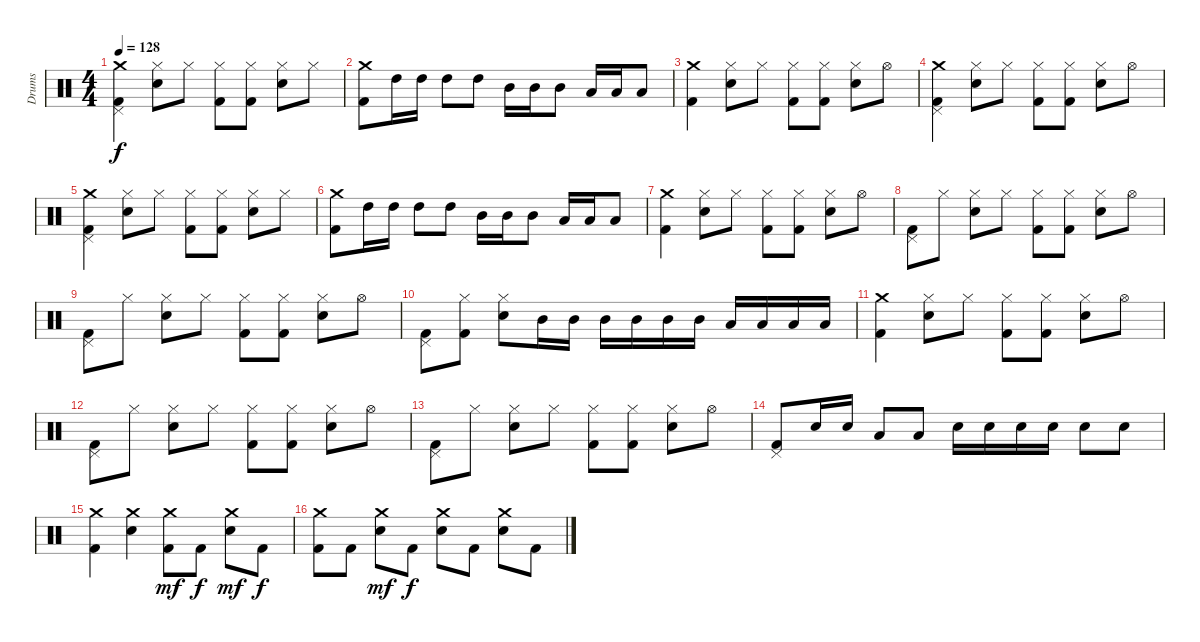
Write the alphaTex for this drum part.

\track ("Drums" "Drums") {instrument percussion}
\staff {score}
\articulation defaults
\ts (4 4)
\tempo 128
\clef neutral
\ks c
("Crash medium (hit)" "Pedal Hi-Hat (hit)" "Kick (hit) 2").4{dy f} ("Hi-Hat (closed)" "Snare (hit) 2").8 "Hi-Hat (closed)".8 ("Hi-Hat (closed)" "Kick (hit) 2").8 ("Hi-Hat (closed)" "Kick (hit) 2").8 ("Hi-Hat (closed)" "Snare (hit) 2").8 "Hi-Hat (closed)".8 |
("Crash medium (hit)" "Kick (hit) 2").8 "High Tom (hit)".16 "High Tom (hit)".16 "High Tom (hit)".8 "High Tom (hit)".8 "Mid Tom (hit)".16 "Mid Tom (hit)".16 "Mid Tom (hit)".8 "Low Tom (hit)".16 "Low Tom (hit)".16 "Low Tom (hit)".8 |
("Crash medium (hit)" "Kick (hit) 2").4 ("Hi-Hat (closed)" "Snare (hit) 2").8 "Hi-Hat (closed)".8 ("Hi-Hat (closed)" "Kick (hit) 2").8 ("Hi-Hat (closed)" "Kick (hit) 2").8 ("Hi-Hat (closed)" "Snare (hit) 2").8 "Hi-Hat (open)".8 |
("Crash medium (hit)" "Pedal Hi-Hat (hit)" "Kick (hit) 2").4 ("Hi-Hat (closed)" "Snare (hit) 2").8 "Hi-Hat (closed)".8 ("Hi-Hat (closed)" "Kick (hit) 2").8 ("Hi-Hat (closed)" "Kick (hit) 2").8 ("Hi-Hat (closed)" "Snare (hit) 2").8 "Hi-Hat (open)".8 |
("Crash medium (hit)" "Pedal Hi-Hat (hit)" "Kick (hit) 2").4 ("Hi-Hat (closed)" "Snare (hit) 2").8 "Hi-Hat (closed)".8 ("Hi-Hat (closed)" "Kick (hit) 2").8 ("Hi-Hat (closed)" "Kick (hit) 2").8 ("Hi-Hat (closed)" "Snare (hit) 2").8 "Hi-Hat (closed)".8 |
("Crash medium (hit)" "Kick (hit) 2").8 "High Tom (hit)".16 "High Tom (hit)".16 "High Tom (hit)".8 "High Tom (hit)".8 "Mid Tom (hit)".16 "Mid Tom (hit)".16 "Mid Tom (hit)".8 "Low Tom (hit)".16 "Low Tom (hit)".16 "Low Tom (hit)".8 |
("Crash medium (hit)" "Kick (hit) 2").4 ("Hi-Hat (closed)" "Snare (hit) 2").8 "Hi-Hat (closed)".8 ("Hi-Hat (closed)" "Kick (hit) 2").8 ("Hi-Hat (closed)" "Kick (hit) 2").8 ("Hi-Hat (closed)" "Snare (hit) 2").8 "Hi-Hat (open)".8 |
("Pedal Hi-Hat (hit)" "Kick (hit) 2").8 "Hi-Hat (closed)".8 ("Hi-Hat (closed)" "Snare (hit) 2").8 "Hi-Hat (closed)".8 ("Hi-Hat (closed)" "Kick (hit) 2").8 ("Hi-Hat (closed)" "Kick (hit) 2").8 ("Hi-Hat (closed)" "Snare (hit) 2").8 "Hi-Hat (open)".8 |
("Pedal Hi-Hat (hit)" "Kick (hit) 2").8 "Hi-Hat (closed)".8 ("Hi-Hat (closed)" "Snare (hit) 2").8 "Hi-Hat (closed)".8 ("Hi-Hat (closed)" "Kick (hit) 2").8 ("Hi-Hat (closed)" "Kick (hit) 2").8 ("Hi-Hat (closed)" "Snare (hit) 2").8 "Hi-Hat (open)".8 |
("Pedal Hi-Hat (hit)" "Kick (hit) 2").8 ("Hi-Hat (closed)" "Kick (hit) 2").8 ("Hi-Hat (closed)" "Snare (hit) 2").8 "Mid Tom (hit)".16 "Mid Tom (hit)".16 "Mid Tom (hit)".16 "Mid Tom (hit)".16 "Mid Tom (hit)".16 "Mid Tom (hit)".16 "Low Tom (hit)".16 "Low Tom (hit)".16 "Low Tom (hit)".16 "Low Tom (hit)".16 |
("Crash medium (hit)" "Kick (hit) 2").4 ("Hi-Hat (closed)" "Snare (hit) 2").8 "Hi-Hat (closed)".8 ("Hi-Hat (closed)" "Kick (hit) 2").8 ("Hi-Hat (closed)" "Kick (hit) 2").8 ("Hi-Hat (closed)" "Snare (hit) 2").8 "Hi-Hat (open)".8 |
("Pedal Hi-Hat (hit)" "Kick (hit) 2").8 "Hi-Hat (closed)".8 ("Hi-Hat (closed)" "Snare (hit) 2").8 "Hi-Hat (closed)".8 ("Hi-Hat (closed)" "Kick (hit) 2").8 ("Hi-Hat (closed)" "Kick (hit) 2").8 ("Hi-Hat (closed)" "Snare (hit) 2").8 "Hi-Hat (open)".8 |
("Pedal Hi-Hat (hit)" "Kick (hit) 2").8 "Hi-Hat (closed)".8 ("Hi-Hat (closed)" "Snare (hit) 2").8 "Hi-Hat (closed)".8 ("Hi-Hat (closed)" "Kick (hit) 2").8 ("Hi-Hat (closed)" "Kick (hit) 2").8 ("Hi-Hat (closed)" "Snare (hit) 2").8 "Hi-Hat (open)".8 |
("Pedal Hi-Hat (hit)" "Kick (hit) 2").8 "Snare (hit) 2".16 "Snare (hit) 2".16 "Low Tom (hit)".8 "Low Tom (hit)".8 "Snare (hit) 2".16 "Snare (hit) 2".16 "Snare (hit) 2".16 "Snare (hit) 2".16 "Snare (hit) 2".8 "Snare (hit) 2".8 |
("Crash medium (hit)" "Kick (hit) 2").4 ("Crash medium (hit)" "Snare (hit) 2").4 ("Crash medium (hit)" "Kick (hit) 2").8{dy mf} "Kick (hit) 2".8{dy f} ("Crash medium (hit)" "Snare (hit) 2").8{dy mf} "Kick (hit) 2".8{dy f} |
("Crash medium (hit)" "Kick (hit) 2").8 "Kick (hit) 2".8 ("Crash medium (hit)" "Snare (hit) 2").8{dy mf} "Kick (hit) 2".8{dy f} ("Crash medium (hit)" "Snare (hit) 2").8 "Kick (hit) 2".8 ("Crash medium (hit)" "Snare (hit) 2").8 "Kick (hit) 2".8
